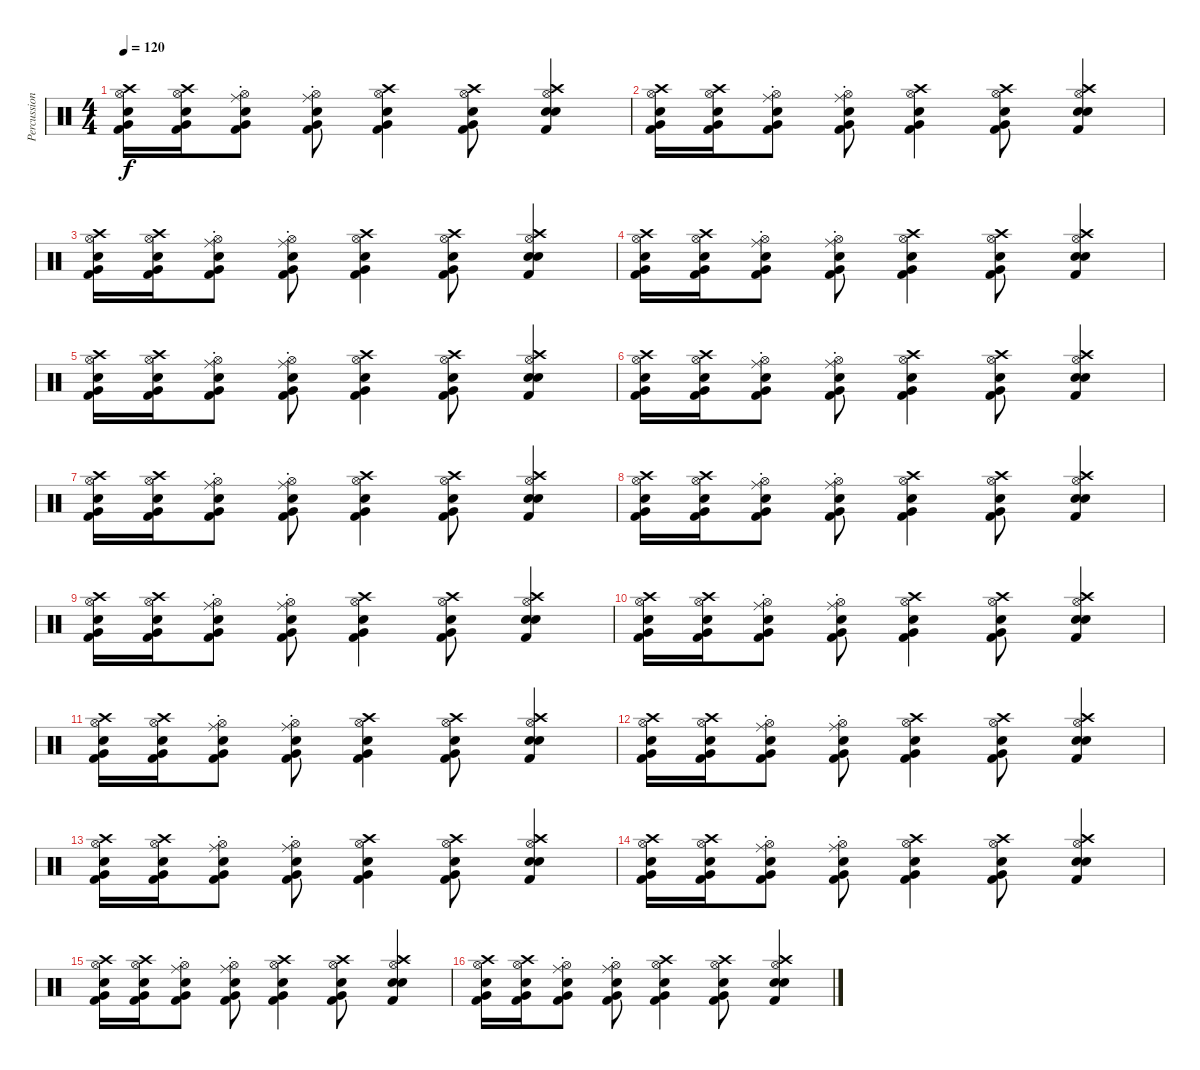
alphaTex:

\track ("Percussion" "Percussion") {instrument percussion}
\staff {score}
\articulation defaults
\ts (4 4)
\tempo 120
\clef neutral
\ks c
("Kick (hit) 2" "Very Low Tom (hit)" "Snare (hit) 2" "Hi-Hat (open)" "Crash high (hit)").16{dy f} ("Very Low Tom (hit)" "Kick (hit) 2" "Snare (hit) 2" "Hi-Hat (open)" "Crash high (hit)").16 ("Very Low Tom (hit)" "Kick (hit) 2" "Snare (hit) 2" "Hi-Hat (open)" "Ride (choke)").8 ("Very Low Tom (hit)" "Kick (hit) 2" "Snare (hit) 2" "Hi-Hat (open)" "Ride (choke)").8 ("Very Low Tom (hit)" "Kick (hit) 2" "Snare (hit) 2" "Hi-Hat (open)" "Crash high (hit)").4 ("Very Low Tom (hit)" "Kick (hit) 2" "Snare (hit) 2" "Hi-Hat (open)" "Crash high (hit)").8 ("Metronome (bell)" "Kick (hit) 2" "Snare (hit) 2" "Hi-Hat (open)" "Crash high (hit)").4 |
("Kick (hit) 2" "Very Low Tom (hit)" "Snare (hit) 2" "Hi-Hat (open)" "Crash high (hit)").16 ("Very Low Tom (hit)" "Kick (hit) 2" "Snare (hit) 2" "Hi-Hat (open)" "Crash high (hit)").16 ("Very Low Tom (hit)" "Kick (hit) 2" "Snare (hit) 2" "Hi-Hat (open)" "Ride (choke)").8 ("Very Low Tom (hit)" "Kick (hit) 2" "Snare (hit) 2" "Hi-Hat (open)" "Ride (choke)").8 ("Very Low Tom (hit)" "Kick (hit) 2" "Snare (hit) 2" "Hi-Hat (open)" "Crash high (hit)").4 ("Very Low Tom (hit)" "Kick (hit) 2" "Snare (hit) 2" "Hi-Hat (open)" "Crash high (hit)").8 ("Metronome (bell)" "Kick (hit) 2" "Snare (hit) 2" "Hi-Hat (open)" "Crash high (hit)").4 |
("Kick (hit) 2" "Very Low Tom (hit)" "Snare (hit) 2" "Hi-Hat (open)" "Crash high (hit)").16 ("Very Low Tom (hit)" "Kick (hit) 2" "Snare (hit) 2" "Hi-Hat (open)" "Crash high (hit)").16 ("Very Low Tom (hit)" "Kick (hit) 2" "Snare (hit) 2" "Hi-Hat (open)" "Ride (choke)").8 ("Very Low Tom (hit)" "Kick (hit) 2" "Snare (hit) 2" "Hi-Hat (open)" "Ride (choke)").8 ("Very Low Tom (hit)" "Kick (hit) 2" "Snare (hit) 2" "Hi-Hat (open)" "Crash high (hit)").4 ("Very Low Tom (hit)" "Kick (hit) 2" "Snare (hit) 2" "Hi-Hat (open)" "Crash high (hit)").8 ("Metronome (bell)" "Kick (hit) 2" "Snare (hit) 2" "Hi-Hat (open)" "Crash high (hit)").4 |
("Kick (hit) 2" "Very Low Tom (hit)" "Snare (hit) 2" "Hi-Hat (open)" "Crash high (hit)").16 ("Very Low Tom (hit)" "Kick (hit) 2" "Snare (hit) 2" "Hi-Hat (open)" "Crash high (hit)").16 ("Very Low Tom (hit)" "Kick (hit) 2" "Snare (hit) 2" "Hi-Hat (open)" "Ride (choke)").8 ("Very Low Tom (hit)" "Kick (hit) 2" "Snare (hit) 2" "Hi-Hat (open)" "Ride (choke)").8 ("Very Low Tom (hit)" "Kick (hit) 2" "Snare (hit) 2" "Hi-Hat (open)" "Crash high (hit)").4 ("Very Low Tom (hit)" "Kick (hit) 2" "Snare (hit) 2" "Hi-Hat (open)" "Crash high (hit)").8 ("Metronome (bell)" "Kick (hit) 2" "Snare (hit) 2" "Hi-Hat (open)" "Crash high (hit)").4 |
("Kick (hit) 2" "Very Low Tom (hit)" "Snare (hit) 2" "Hi-Hat (open)" "Crash high (hit)").16 ("Very Low Tom (hit)" "Kick (hit) 2" "Snare (hit) 2" "Hi-Hat (open)" "Crash high (hit)").16 ("Very Low Tom (hit)" "Kick (hit) 2" "Snare (hit) 2" "Hi-Hat (open)" "Ride (choke)").8 ("Very Low Tom (hit)" "Kick (hit) 2" "Snare (hit) 2" "Hi-Hat (open)" "Ride (choke)").8 ("Very Low Tom (hit)" "Kick (hit) 2" "Snare (hit) 2" "Hi-Hat (open)" "Crash high (hit)").4 ("Very Low Tom (hit)" "Kick (hit) 2" "Snare (hit) 2" "Hi-Hat (open)" "Crash high (hit)").8 ("Metronome (bell)" "Kick (hit) 2" "Snare (hit) 2" "Hi-Hat (open)" "Crash high (hit)").4 |
("Kick (hit) 2" "Very Low Tom (hit)" "Snare (hit) 2" "Hi-Hat (open)" "Crash high (hit)").16 ("Very Low Tom (hit)" "Kick (hit) 2" "Snare (hit) 2" "Hi-Hat (open)" "Crash high (hit)").16 ("Very Low Tom (hit)" "Kick (hit) 2" "Snare (hit) 2" "Hi-Hat (open)" "Ride (choke)").8 ("Very Low Tom (hit)" "Kick (hit) 2" "Snare (hit) 2" "Hi-Hat (open)" "Ride (choke)").8 ("Very Low Tom (hit)" "Kick (hit) 2" "Snare (hit) 2" "Hi-Hat (open)" "Crash high (hit)").4 ("Very Low Tom (hit)" "Kick (hit) 2" "Snare (hit) 2" "Hi-Hat (open)" "Crash high (hit)").8 ("Metronome (bell)" "Kick (hit) 2" "Snare (hit) 2" "Hi-Hat (open)" "Crash high (hit)").4 |
("Kick (hit) 2" "Very Low Tom (hit)" "Snare (hit) 2" "Hi-Hat (open)" "Crash high (hit)").16 ("Very Low Tom (hit)" "Kick (hit) 2" "Snare (hit) 2" "Hi-Hat (open)" "Crash high (hit)").16 ("Very Low Tom (hit)" "Kick (hit) 2" "Snare (hit) 2" "Hi-Hat (open)" "Ride (choke)").8 ("Very Low Tom (hit)" "Kick (hit) 2" "Snare (hit) 2" "Hi-Hat (open)" "Ride (choke)").8 ("Very Low Tom (hit)" "Kick (hit) 2" "Snare (hit) 2" "Hi-Hat (open)" "Crash high (hit)").4 ("Very Low Tom (hit)" "Kick (hit) 2" "Snare (hit) 2" "Hi-Hat (open)" "Crash high (hit)").8 ("Metronome (bell)" "Kick (hit) 2" "Snare (hit) 2" "Hi-Hat (open)" "Crash high (hit)").4 |
("Kick (hit) 2" "Very Low Tom (hit)" "Snare (hit) 2" "Hi-Hat (open)" "Crash high (hit)").16 ("Very Low Tom (hit)" "Kick (hit) 2" "Snare (hit) 2" "Hi-Hat (open)" "Crash high (hit)").16 ("Very Low Tom (hit)" "Kick (hit) 2" "Snare (hit) 2" "Hi-Hat (open)" "Ride (choke)").8 ("Very Low Tom (hit)" "Kick (hit) 2" "Snare (hit) 2" "Hi-Hat (open)" "Ride (choke)").8 ("Very Low Tom (hit)" "Kick (hit) 2" "Snare (hit) 2" "Hi-Hat (open)" "Crash high (hit)").4 ("Very Low Tom (hit)" "Kick (hit) 2" "Snare (hit) 2" "Hi-Hat (open)" "Crash high (hit)").8 ("Metronome (bell)" "Kick (hit) 2" "Snare (hit) 2" "Hi-Hat (open)" "Crash high (hit)").4 |
("Kick (hit) 2" "Very Low Tom (hit)" "Snare (hit) 2" "Hi-Hat (open)" "Crash high (hit)").16 ("Very Low Tom (hit)" "Kick (hit) 2" "Snare (hit) 2" "Hi-Hat (open)" "Crash high (hit)").16 ("Very Low Tom (hit)" "Kick (hit) 2" "Snare (hit) 2" "Hi-Hat (open)" "Ride (choke)").8 ("Very Low Tom (hit)" "Kick (hit) 2" "Snare (hit) 2" "Hi-Hat (open)" "Ride (choke)").8 ("Very Low Tom (hit)" "Kick (hit) 2" "Snare (hit) 2" "Hi-Hat (open)" "Crash high (hit)").4 ("Very Low Tom (hit)" "Kick (hit) 2" "Snare (hit) 2" "Hi-Hat (open)" "Crash high (hit)").8 ("Metronome (bell)" "Kick (hit) 2" "Snare (hit) 2" "Hi-Hat (open)" "Crash high (hit)").4 |
("Kick (hit) 2" "Very Low Tom (hit)" "Snare (hit) 2" "Hi-Hat (open)" "Crash high (hit)").16 ("Very Low Tom (hit)" "Kick (hit) 2" "Snare (hit) 2" "Hi-Hat (open)" "Crash high (hit)").16 ("Very Low Tom (hit)" "Kick (hit) 2" "Snare (hit) 2" "Hi-Hat (open)" "Ride (choke)").8 ("Very Low Tom (hit)" "Kick (hit) 2" "Snare (hit) 2" "Hi-Hat (open)" "Ride (choke)").8 ("Very Low Tom (hit)" "Kick (hit) 2" "Snare (hit) 2" "Hi-Hat (open)" "Crash high (hit)").4 ("Very Low Tom (hit)" "Kick (hit) 2" "Snare (hit) 2" "Hi-Hat (open)" "Crash high (hit)").8 ("Metronome (bell)" "Kick (hit) 2" "Snare (hit) 2" "Hi-Hat (open)" "Crash high (hit)").4 |
("Kick (hit) 2" "Very Low Tom (hit)" "Snare (hit) 2" "Hi-Hat (open)" "Crash high (hit)").16 ("Very Low Tom (hit)" "Kick (hit) 2" "Snare (hit) 2" "Hi-Hat (open)" "Crash high (hit)").16 ("Very Low Tom (hit)" "Kick (hit) 2" "Snare (hit) 2" "Hi-Hat (open)" "Ride (choke)").8 ("Very Low Tom (hit)" "Kick (hit) 2" "Snare (hit) 2" "Hi-Hat (open)" "Ride (choke)").8 ("Very Low Tom (hit)" "Kick (hit) 2" "Snare (hit) 2" "Hi-Hat (open)" "Crash high (hit)").4 ("Very Low Tom (hit)" "Kick (hit) 2" "Snare (hit) 2" "Hi-Hat (open)" "Crash high (hit)").8 ("Metronome (bell)" "Kick (hit) 2" "Snare (hit) 2" "Hi-Hat (open)" "Crash high (hit)").4 |
("Kick (hit) 2" "Very Low Tom (hit)" "Snare (hit) 2" "Hi-Hat (open)" "Crash high (hit)").16 ("Very Low Tom (hit)" "Kick (hit) 2" "Snare (hit) 2" "Hi-Hat (open)" "Crash high (hit)").16 ("Very Low Tom (hit)" "Kick (hit) 2" "Snare (hit) 2" "Hi-Hat (open)" "Ride (choke)").8 ("Very Low Tom (hit)" "Kick (hit) 2" "Snare (hit) 2" "Hi-Hat (open)" "Ride (choke)").8 ("Very Low Tom (hit)" "Kick (hit) 2" "Snare (hit) 2" "Hi-Hat (open)" "Crash high (hit)").4 ("Very Low Tom (hit)" "Kick (hit) 2" "Snare (hit) 2" "Hi-Hat (open)" "Crash high (hit)").8 ("Metronome (bell)" "Kick (hit) 2" "Snare (hit) 2" "Hi-Hat (open)" "Crash high (hit)").4 |
("Kick (hit) 2" "Very Low Tom (hit)" "Snare (hit) 2" "Hi-Hat (open)" "Crash high (hit)").16 ("Very Low Tom (hit)" "Kick (hit) 2" "Snare (hit) 2" "Hi-Hat (open)" "Crash high (hit)").16 ("Very Low Tom (hit)" "Kick (hit) 2" "Snare (hit) 2" "Hi-Hat (open)" "Ride (choke)").8 ("Very Low Tom (hit)" "Kick (hit) 2" "Snare (hit) 2" "Hi-Hat (open)" "Ride (choke)").8 ("Very Low Tom (hit)" "Kick (hit) 2" "Snare (hit) 2" "Hi-Hat (open)" "Crash high (hit)").4 ("Very Low Tom (hit)" "Kick (hit) 2" "Snare (hit) 2" "Hi-Hat (open)" "Crash high (hit)").8 ("Metronome (bell)" "Kick (hit) 2" "Snare (hit) 2" "Hi-Hat (open)" "Crash high (hit)").4 |
("Kick (hit) 2" "Very Low Tom (hit)" "Snare (hit) 2" "Hi-Hat (open)" "Crash high (hit)").16 ("Very Low Tom (hit)" "Kick (hit) 2" "Snare (hit) 2" "Hi-Hat (open)" "Crash high (hit)").16 ("Very Low Tom (hit)" "Kick (hit) 2" "Snare (hit) 2" "Hi-Hat (open)" "Ride (choke)").8 ("Very Low Tom (hit)" "Kick (hit) 2" "Snare (hit) 2" "Hi-Hat (open)" "Ride (choke)").8 ("Very Low Tom (hit)" "Kick (hit) 2" "Snare (hit) 2" "Hi-Hat (open)" "Crash high (hit)").4 ("Very Low Tom (hit)" "Kick (hit) 2" "Snare (hit) 2" "Hi-Hat (open)" "Crash high (hit)").8 ("Metronome (bell)" "Kick (hit) 2" "Snare (hit) 2" "Hi-Hat (open)" "Crash high (hit)").4 |
("Kick (hit) 2" "Very Low Tom (hit)" "Snare (hit) 2" "Hi-Hat (open)" "Crash high (hit)").16 ("Very Low Tom (hit)" "Kick (hit) 2" "Snare (hit) 2" "Hi-Hat (open)" "Crash high (hit)").16 ("Very Low Tom (hit)" "Kick (hit) 2" "Snare (hit) 2" "Hi-Hat (open)" "Ride (choke)").8 ("Very Low Tom (hit)" "Kick (hit) 2" "Snare (hit) 2" "Hi-Hat (open)" "Ride (choke)").8 ("Very Low Tom (hit)" "Kick (hit) 2" "Snare (hit) 2" "Hi-Hat (open)" "Crash high (hit)").4 ("Very Low Tom (hit)" "Kick (hit) 2" "Snare (hit) 2" "Hi-Hat (open)" "Crash high (hit)").8 ("Metronome (bell)" "Kick (hit) 2" "Snare (hit) 2" "Hi-Hat (open)" "Crash high (hit)").4 |
("Kick (hit) 2" "Very Low Tom (hit)" "Snare (hit) 2" "Hi-Hat (open)" "Crash high (hit)").16 ("Very Low Tom (hit)" "Kick (hit) 2" "Snare (hit) 2" "Hi-Hat (open)" "Crash high (hit)").16 ("Very Low Tom (hit)" "Kick (hit) 2" "Snare (hit) 2" "Hi-Hat (open)" "Ride (choke)").8 ("Very Low Tom (hit)" "Kick (hit) 2" "Snare (hit) 2" "Hi-Hat (open)" "Ride (choke)").8 ("Very Low Tom (hit)" "Kick (hit) 2" "Snare (hit) 2" "Hi-Hat (open)" "Crash high (hit)").4 ("Very Low Tom (hit)" "Kick (hit) 2" "Snare (hit) 2" "Hi-Hat (open)" "Crash high (hit)").8 ("Metronome (bell)" "Kick (hit) 2" "Snare (hit) 2" "Hi-Hat (open)" "Crash high (hit)").4
